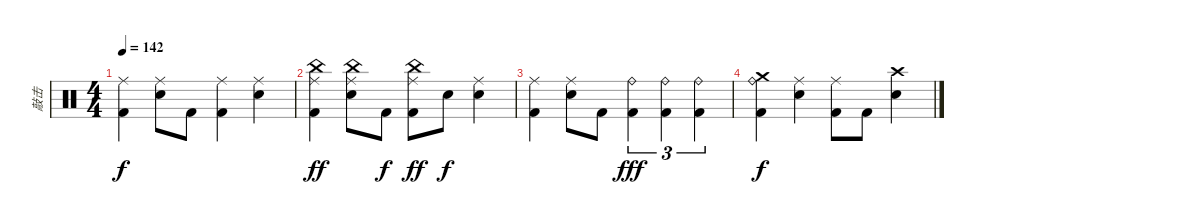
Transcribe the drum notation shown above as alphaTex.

\track ("敲击" "敲击") {instrument percussion}
\staff {score}
\articulation defaults
\ts (4 4)
\tempo 142
\clef neutral
\ks c
("Ride (middle)" "Kick (hit) 2").4{dy f} ("Ride (middle)" "Electric Snare (hit)").8 "Kick (hit) 2".8 ("Ride (middle)" "Kick (hit) 2").4 ("Ride (middle)" "Electric Snare (hit)").4 |
("Ride (middle)" "China (hit)" "Kick (hit) 2").4{dy ff} ("Ride (middle)" "China (hit)" "Electric Snare (hit)").8 "Kick (hit) 2".8{dy f} ("Ride (middle)" "China (hit)" "Kick (hit) 2").8{dy ff} "Electric Snare (hit)".8{dy f} ("Ride (middle)" "Electric Snare (hit)").4 |
("Ride (middle)" "Kick (hit) 2").4 ("Ride (middle)" "Snare (hit) 2").8 "Kick (hit) 2".8 ("Ride (bell)" "Kick (hit) 2").4{tu (3 2) dy fff} ("Ride (bell)" "Kick (hit) 2").4{tu (3 2)} ("Ride (bell)" "Kick (hit) 2").4{tu (3 2)} |
("Ride (bell)" "Crash medium (hit)" "Kick (hit) 2").4{dy f} ("Ride (middle)" "Snare (hit) 2").4 ("Ride (middle)" "Kick (hit) 2").8 "Kick (hit) 2".8 ("Crash high (hit)" "Snare (hit) 2").4
